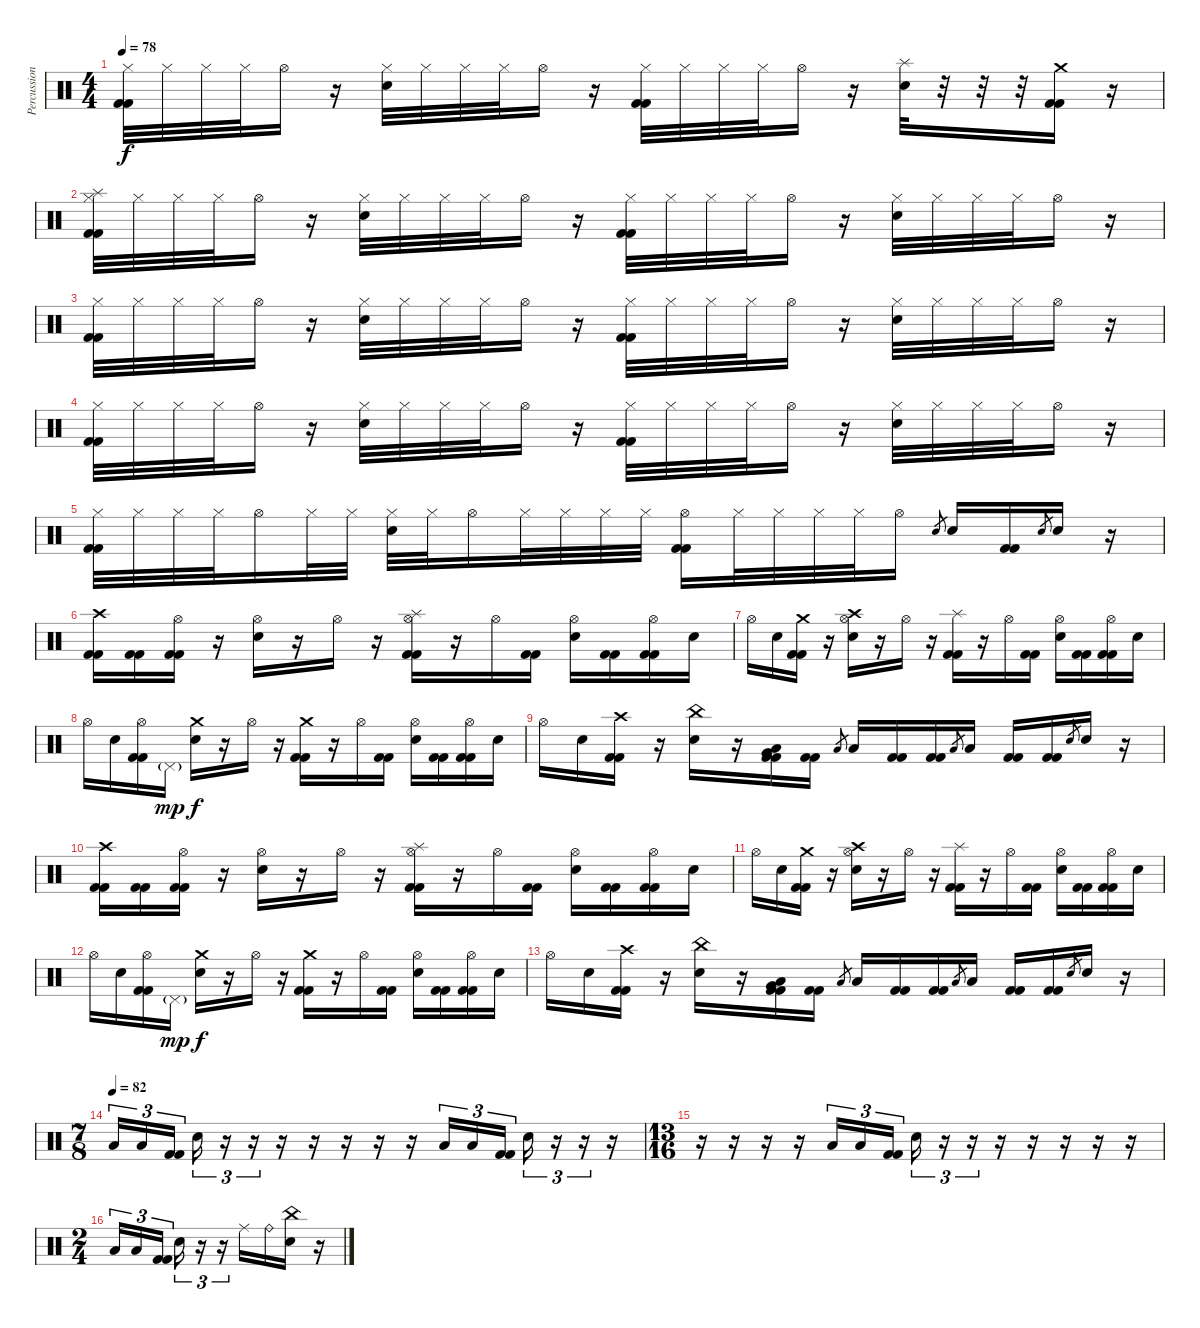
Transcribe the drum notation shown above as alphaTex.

\track ("Percussion" "Percussion") {instrument percussion}
\staff {score}
\articulation defaults
\ts (4 4)
\tempo 78
\clef neutral
\ks c
("Hi-Hat (closed)" "Kick (hit) 2" "Kick (hit) 2").32{dy f} "Hi-Hat (closed)".32 "Hi-Hat (closed)".32 "Hi-Hat (closed)".32 "Hi-Hat (open)".16 r.16 ("Hi-Hat (closed)" "Electric Snare (hit)").32 "Hi-Hat (closed)".32 "Hi-Hat (closed)".32 "Hi-Hat (closed)".32 "Hi-Hat (open)".16 r.16 ("Hi-Hat (closed)" "Kick (hit) 2" "Kick (hit) 2").32 "Hi-Hat (closed)".32 "Hi-Hat (closed)".32 "Hi-Hat (closed)".32 "Hi-Hat (open)".16 r.16 ("Splash (hit)" "Electric Snare (hit)").32 r.32 r.32 r.32 ("Crash medium (hit)" "Kick (hit) 2" "Kick (hit) 2").16 r.16 |
("Splash (hit)" "Hi-Hat (closed)" "Kick (hit) 2" "Kick (hit) 2").32 "Hi-Hat (closed)".32 "Hi-Hat (closed)".32 "Hi-Hat (closed)".32 "Hi-Hat (open)".16 r.16 ("Hi-Hat (closed)" "Electric Snare (hit)").32 "Hi-Hat (closed)".32 "Hi-Hat (closed)".32 "Hi-Hat (closed)".32 "Hi-Hat (open)".16 r.16 ("Hi-Hat (closed)" "Kick (hit) 2" "Kick (hit) 2").32 "Hi-Hat (closed)".32 "Hi-Hat (closed)".32 "Hi-Hat (closed)".32 "Hi-Hat (open)".16 r.16 ("Hi-Hat (closed)" "Electric Snare (hit)").32 "Hi-Hat (closed)".32 "Hi-Hat (closed)".32 "Hi-Hat (closed)".32 "Hi-Hat (open)".16 r.16 |
("Hi-Hat (closed)" "Kick (hit) 2" "Kick (hit) 2").32 "Hi-Hat (closed)".32 "Hi-Hat (closed)".32 "Hi-Hat (closed)".32 "Hi-Hat (open)".16 r.16 ("Hi-Hat (closed)" "Electric Snare (hit)").32 "Hi-Hat (closed)".32 "Hi-Hat (closed)".32 "Hi-Hat (closed)".32 "Hi-Hat (open)".16 r.16 ("Hi-Hat (closed)" "Kick (hit) 2" "Kick (hit) 2").32 "Hi-Hat (closed)".32 "Hi-Hat (closed)".32 "Hi-Hat (closed)".32 "Hi-Hat (open)".16 r.16 ("Hi-Hat (closed)" "Electric Snare (hit)").32 "Hi-Hat (closed)".32 "Hi-Hat (closed)".32 "Hi-Hat (closed)".32 "Hi-Hat (open)".16 r.16 |
("Hi-Hat (closed)" "Kick (hit) 2" "Kick (hit) 2").32 "Hi-Hat (closed)".32 "Hi-Hat (closed)".32 "Hi-Hat (closed)".32 "Hi-Hat (open)".16 r.16 ("Hi-Hat (closed)" "Electric Snare (hit)").32 "Hi-Hat (closed)".32 "Hi-Hat (closed)".32 "Hi-Hat (closed)".32 "Hi-Hat (open)".16 r.16 ("Hi-Hat (closed)" "Kick (hit) 2" "Kick (hit) 2").32 "Hi-Hat (closed)".32 "Hi-Hat (closed)".32 "Hi-Hat (closed)".32 "Hi-Hat (open)".16 r.16 ("Hi-Hat (closed)" "Electric Snare (hit)").32 "Hi-Hat (closed)".32 "Hi-Hat (closed)".32 "Hi-Hat (closed)".32 "Hi-Hat (open)".16 r.16 |
("Hi-Hat (closed)" "Kick (hit) 2" "Kick (hit) 2").32 "Hi-Hat (closed)".32 "Hi-Hat (closed)".32 "Hi-Hat (closed)".32 "Hi-Hat (open)".16 "Hi-Hat (closed)".32 "Hi-Hat (closed)".32 ("Hi-Hat (closed)" "Electric Snare (hit)").32 "Hi-Hat (closed)".32 "Hi-Hat (open)".16 "Hi-Hat (closed)".32 "Hi-Hat (closed)".32 "Hi-Hat (closed)".32 "Hi-Hat (closed)".32 ("Hi-Hat (open)" "Kick (hit) 2" "Kick (hit) 2").16 "Hi-Hat (closed)".32 "Hi-Hat (closed)".32 "Hi-Hat (closed)".32 "Hi-Hat (closed)".32 "Hi-Hat (open)".16 "Electric Snare (hit)".8{gr} "Electric Snare (hit)".16 ("Kick (hit) 2" "Kick (hit) 2").16 "Electric Snare (hit)".8{gr} "Electric Snare (hit)".16 r.16 |
("Crash high (hit)" "Kick (hit) 2" "Kick (hit) 2").16 ("Kick (hit) 2" "Kick (hit) 2").16 ("Hi-Hat (open)" "Kick (hit) 2" "Kick (hit) 2").16 r.16 ("Hi-Hat (open)" "Electric Snare (hit)").16 r.16 "Hi-Hat (open)".16 r.16 ("Splash (hit)" "Hi-Hat (open)" "Kick (hit) 2" "Kick (hit) 2").16 r.16 "Hi-Hat (open)".16 ("Kick (hit) 2" "Kick (hit) 2").16 ("Hi-Hat (open)" "Electric Snare (hit)").16 ("Kick (hit) 2" "Kick (hit) 2").16 ("Hi-Hat (open)" "Kick (hit) 2" "Kick (hit) 2").16 "Electric Snare (hit)".16 |
"Hi-Hat (open)".16 "Electric Snare (hit)".16 ("Crash medium (hit)" "Kick (hit) 2" "Kick (hit) 2").16 r.16 ("Crash high (hit)" "Hi-Hat (open)" "Electric Snare (hit)").16 r.16 "Hi-Hat (open)".16 r.16 ("Splash (hit)" "Kick (hit) 2" "Kick (hit) 2").16 r.16 "Hi-Hat (open)".16 ("Kick (hit) 2" "Kick (hit) 2").16 ("Hi-Hat (open)" "Electric Snare (hit)").16 ("Kick (hit) 2" "Kick (hit) 2").16 ("Hi-Hat (open)" "Kick (hit) 2" "Kick (hit) 2").16 "Electric Snare (hit)".16 |
"Hi-Hat (open)".16 "Electric Snare (hit)".16 ("Hi-Hat (open)" "Kick (hit) 2" "Kick (hit) 2").16 "Pedal Hi-Hat (hit)"{g}.16{dy mp} ("Crash medium (hit)" "Electric Snare (hit)").16{dy f} r.16 "Hi-Hat (open)".16 r.16 ("Crash medium (hit)" "Kick (hit) 2" "Kick (hit) 2").16 r.16 "Hi-Hat (open)".16 ("Kick (hit) 2" "Kick (hit) 2").16 ("Hi-Hat (open)" "Electric Snare (hit)").16 ("Kick (hit) 2" "Kick (hit) 2").16 ("Hi-Hat (open)" "Kick (hit) 2" "Kick (hit) 2").16 "Electric Snare (hit)".16 |
"Hi-Hat (open)".16 "Electric Snare (hit)".16 ("Crash high (hit)" "Kick (hit) 2" "Kick (hit) 2").16 r.16 ("China (hit)" "Electric Snare (hit)").16 r.16 ("Very Low Tom (hit)" "Low Floor Tom (hit)" "Kick (hit) 2" "Kick (hit) 2").16 ("Kick (hit) 2" "Kick (hit) 2").16 "Low Floor Tom (hit)".8{gr} "Low Floor Tom (hit)".16 ("Kick (hit) 2" "Kick (hit) 2").16 ("Kick (hit) 2" "Kick (hit) 2").16 "Low Tom (hit)".8{gr} "Low Tom (hit)".16 ("Kick (hit) 2" "Kick (hit) 2").16 ("Kick (hit) 2" "Kick (hit) 2").16 "Electric Snare (hit)".8{gr} "Electric Snare (hit)".16 r.16 |
("Crash high (hit)" "Kick (hit) 2" "Kick (hit) 2").16 ("Kick (hit) 2" "Kick (hit) 2").16 ("Hi-Hat (open)" "Kick (hit) 2" "Kick (hit) 2").16 r.16 ("Hi-Hat (open)" "Electric Snare (hit)").16 r.16 "Hi-Hat (open)".16 r.16 ("Splash (hit)" "Hi-Hat (open)" "Kick (hit) 2" "Kick (hit) 2").16 r.16 "Hi-Hat (open)".16 ("Kick (hit) 2" "Kick (hit) 2").16 ("Hi-Hat (open)" "Electric Snare (hit)").16 ("Kick (hit) 2" "Kick (hit) 2").16 ("Hi-Hat (open)" "Kick (hit) 2" "Kick (hit) 2").16 "Electric Snare (hit)".16 |
"Hi-Hat (open)".16 "Electric Snare (hit)".16 ("Crash medium (hit)" "Kick (hit) 2" "Kick (hit) 2").16 r.16 ("Crash high (hit)" "Hi-Hat (open)" "Electric Snare (hit)").16 r.16 "Hi-Hat (open)".16 r.16 ("Splash (hit)" "Kick (hit) 2" "Kick (hit) 2").16 r.16 "Hi-Hat (open)".16 ("Kick (hit) 2" "Kick (hit) 2").16 ("Hi-Hat (open)" "Electric Snare (hit)").16 ("Kick (hit) 2" "Kick (hit) 2").16 ("Hi-Hat (open)" "Kick (hit) 2" "Kick (hit) 2").16 "Electric Snare (hit)".16 |
"Hi-Hat (open)".16 "Electric Snare (hit)".16 ("Hi-Hat (open)" "Kick (hit) 2" "Kick (hit) 2").16 "Pedal Hi-Hat (hit)"{g}.16{dy mp} ("Crash medium (hit)" "Electric Snare (hit)").16{dy f} r.16 "Hi-Hat (open)".16 r.16 ("Crash medium (hit)" "Kick (hit) 2" "Kick (hit) 2").16 r.16 "Hi-Hat (open)".16 ("Kick (hit) 2" "Kick (hit) 2").16 ("Hi-Hat (open)" "Electric Snare (hit)").16 ("Kick (hit) 2" "Kick (hit) 2").16 ("Hi-Hat (open)" "Kick (hit) 2" "Kick (hit) 2").16 "Electric Snare (hit)".16 |
"Hi-Hat (open)".16 "Electric Snare (hit)".16 ("Crash high (hit)" "Kick (hit) 2" "Kick (hit) 2").16 r.16 ("China (hit)" "Electric Snare (hit)").16 r.16 ("Very Low Tom (hit)" "Low Floor Tom (hit)" "Kick (hit) 2" "Kick (hit) 2").16 ("Kick (hit) 2" "Kick (hit) 2").16 "Low Floor Tom (hit)".8{gr} "Low Floor Tom (hit)".16 ("Kick (hit) 2" "Kick (hit) 2").16 ("Kick (hit) 2" "Kick (hit) 2").16 "Low Tom (hit)".8{gr} "Low Tom (hit)".16 ("Kick (hit) 2" "Kick (hit) 2").16 ("Kick (hit) 2" "Kick (hit) 2").16 "Electric Snare (hit)".8{gr} "Electric Snare (hit)".16 r.16 |
\ts (7 8)
\tempo (82)
"Low Floor Tom (hit)".16{tu (3 2)} "Low Tom (hit)".16{tu (3 2)} ("Kick (hit) 2" "Kick (hit) 2").16{tu (3 2)} "Electric Snare (hit)".16{tu (3 2)} r.16{tu (3 2)} r.16{tu (3 2)} r.16 r.16 r.16 r.16 r.16 "Low Floor Tom (hit)".16{tu (3 2)} "Low Tom (hit)".16{tu (3 2)} ("Kick (hit) 2" "Kick (hit) 2").16{tu (3 2)} "Electric Snare (hit)".16{tu (3 2)} r.16{tu (3 2)} r.16{tu (3 2)} r.16 |
\ts (13 16)
r.16 r.16 r.16 r.16 "Low Floor Tom (hit)".16{tu (3 2)} "Low Tom (hit)".16{tu (3 2)} ("Kick (hit) 2" "Kick (hit) 2").16{tu (3 2)} "Electric Snare (hit)".16{tu (3 2)} r.16{tu (3 2)} r.16{tu (3 2)} r.16 r.16 r.16 r.16 r.16 |
\ts (2 4)
"Low Floor Tom (hit)".16{tu (3 2)} "Low Tom (hit)".16{tu (3 2)} ("Kick (hit) 2" "Kick (hit) 2").16{tu (3 2) beam splitsecondary} "Electric Snare (hit)".16{tu (3 2)} r.16{tu (3 2)} r.16{tu (3 2)} "Ride (middle)".16 "Ride (bell)".16 ("China (hit)" "Electric Snare (hit)").16 r.16
